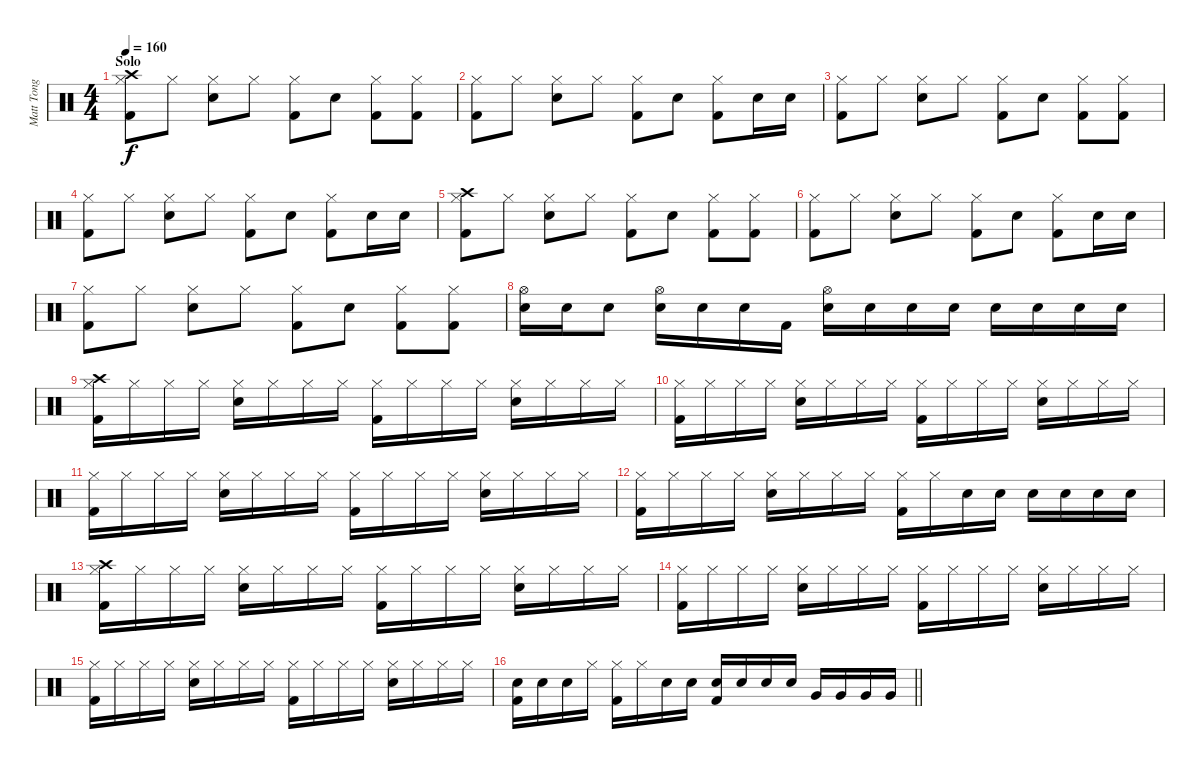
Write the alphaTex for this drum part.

\track ("Matt Tong" "Matt Tong") {instrument percussion}
\staff {score}
\articulation defaults
\ts (4 4)
\section ("" "Solo")
\tempo 160
\clef neutral
\ks c
("Crash high (hit)" "Hi-Hat (closed)" "Kick (hit) 2").8{dy f} "Hi-Hat (closed)".8 ("Hi-Hat (closed)" "Electric Snare (hit)").8 "Hi-Hat (closed)".8 ("Hi-Hat (closed)" "Kick (hit) 2").8 "Electric Snare (hit)".8 ("Hi-Hat (closed)" "Kick (hit) 2").8 ("Hi-Hat (closed)" "Kick (hit) 2").8 |
("Hi-Hat (closed)" "Kick (hit) 2").8 "Hi-Hat (closed)".8 ("Hi-Hat (closed)" "Electric Snare (hit)").8 "Hi-Hat (closed)".8 ("Hi-Hat (closed)" "Kick (hit) 2").8 "Electric Snare (hit)".8 ("Hi-Hat (closed)" "Kick (hit) 2").8 "Electric Snare (hit)".16 "Electric Snare (hit)".16 |
("Hi-Hat (closed)" "Kick (hit) 2").8 "Hi-Hat (closed)".8 ("Hi-Hat (closed)" "Electric Snare (hit)").8 "Hi-Hat (closed)".8 ("Hi-Hat (closed)" "Kick (hit) 2").8 "Electric Snare (hit)".8 ("Hi-Hat (closed)" "Kick (hit) 2").8 ("Hi-Hat (closed)" "Kick (hit) 2").8 |
("Hi-Hat (closed)" "Kick (hit) 2").8 "Hi-Hat (closed)".8 ("Hi-Hat (closed)" "Electric Snare (hit)").8 "Hi-Hat (closed)".8 ("Hi-Hat (closed)" "Kick (hit) 2").8 "Electric Snare (hit)".8 ("Hi-Hat (closed)" "Kick (hit) 2").8 "Electric Snare (hit)".16 "Electric Snare (hit)".16 |
("Crash high (hit)" "Hi-Hat (closed)" "Kick (hit) 2").8 "Hi-Hat (closed)".8 ("Hi-Hat (closed)" "Electric Snare (hit)").8 "Hi-Hat (closed)".8 ("Hi-Hat (closed)" "Kick (hit) 2").8 "Electric Snare (hit)".8 ("Hi-Hat (closed)" "Kick (hit) 2").8 ("Hi-Hat (closed)" "Kick (hit) 2").8 |
("Hi-Hat (closed)" "Kick (hit) 2").8 "Hi-Hat (closed)".8 ("Hi-Hat (closed)" "Electric Snare (hit)").8 "Hi-Hat (closed)".8 ("Hi-Hat (closed)" "Kick (hit) 2").8 "Electric Snare (hit)".8 ("Hi-Hat (closed)" "Kick (hit) 2").8 "Electric Snare (hit)".16 "Electric Snare (hit)".16 |
("Hi-Hat (closed)" "Kick (hit) 2").8 "Hi-Hat (closed)".8 ("Hi-Hat (closed)" "Electric Snare (hit)").8 "Hi-Hat (closed)".8 ("Hi-Hat (closed)" "Kick (hit) 2").8 "Electric Snare (hit)".8 ("Hi-Hat (closed)" "Kick (hit) 2").8 ("Hi-Hat (closed)" "Kick (hit) 2").8 |
("Hi-Hat (open)" "Electric Snare (hit)").16 "Electric Snare (hit)".16 "Electric Snare (hit)".8 ("Hi-Hat (open)" "Electric Snare (hit)").16 "Electric Snare (hit)".16 "Electric Snare (hit)".16 "Kick (hit) 2".16 ("Hi-Hat (open)" "Electric Snare (hit)").16 "Electric Snare (hit)".16 "Electric Snare (hit)".16 "Electric Snare (hit)".16 "Electric Snare (hit)".16 "Electric Snare (hit)".16 "Electric Snare (hit)".16 "Electric Snare (hit)".16 |
("Crash high (hit)" "Hi-Hat (closed)" "Kick (hit) 2").16 "Hi-Hat (closed)".16 "Hi-Hat (closed)".16 "Hi-Hat (closed)".16 ("Hi-Hat (closed)" "Electric Snare (hit)").16 "Hi-Hat (closed)".16 "Hi-Hat (closed)".16 "Hi-Hat (closed)".16 ("Hi-Hat (closed)" "Kick (hit) 2").16 "Hi-Hat (closed)".16 "Hi-Hat (closed)".16 "Hi-Hat (closed)".16 ("Hi-Hat (closed)" "Electric Snare (hit)").16 "Hi-Hat (closed)".16 "Hi-Hat (closed)".16 "Hi-Hat (closed)".16 |
("Hi-Hat (closed)" "Kick (hit) 2").16 "Hi-Hat (closed)".16 "Hi-Hat (closed)".16 "Hi-Hat (closed)".16 ("Hi-Hat (closed)" "Electric Snare (hit)").16 "Hi-Hat (closed)".16 "Hi-Hat (closed)".16 "Hi-Hat (closed)".16 ("Hi-Hat (closed)" "Kick (hit) 2").16 "Hi-Hat (closed)".16 "Hi-Hat (closed)".16 "Hi-Hat (closed)".16 ("Hi-Hat (closed)" "Electric Snare (hit)").16 "Hi-Hat (closed)".16 "Hi-Hat (closed)".16 "Hi-Hat (closed)".16 |
("Hi-Hat (closed)" "Kick (hit) 2").16 "Hi-Hat (closed)".16 "Hi-Hat (closed)".16 "Hi-Hat (closed)".16 ("Hi-Hat (closed)" "Electric Snare (hit)").16 "Hi-Hat (closed)".16 "Hi-Hat (closed)".16 "Hi-Hat (closed)".16 ("Hi-Hat (closed)" "Kick (hit) 2").16 "Hi-Hat (closed)".16 "Hi-Hat (closed)".16 "Hi-Hat (closed)".16 ("Hi-Hat (closed)" "Electric Snare (hit)").16 "Hi-Hat (closed)".16 "Hi-Hat (closed)".16 "Hi-Hat (closed)".16 |
("Hi-Hat (closed)" "Kick (hit) 2").16 "Hi-Hat (closed)".16 "Hi-Hat (closed)".16 "Hi-Hat (closed)".16 ("Hi-Hat (closed)" "Electric Snare (hit)").16 "Hi-Hat (closed)".16 "Hi-Hat (closed)".16 "Hi-Hat (closed)".16 ("Hi-Hat (closed)" "Kick (hit) 2").16 "Hi-Hat (closed)".16 "Electric Snare (hit)".16 "Electric Snare (hit)".16 "Electric Snare (hit)".16 "Electric Snare (hit)".16 "Electric Snare (hit)".16 "Electric Snare (hit)".16 |
("Crash high (hit)" "Hi-Hat (closed)" "Kick (hit) 2").16 "Hi-Hat (closed)".16 "Hi-Hat (closed)".16 "Hi-Hat (closed)".16 ("Hi-Hat (closed)" "Electric Snare (hit)").16 "Hi-Hat (closed)".16 "Hi-Hat (closed)".16 "Hi-Hat (closed)".16 ("Hi-Hat (closed)" "Kick (hit) 2").16 "Hi-Hat (closed)".16 "Hi-Hat (closed)".16 "Hi-Hat (closed)".16 ("Hi-Hat (closed)" "Electric Snare (hit)").16 "Hi-Hat (closed)".16 "Hi-Hat (closed)".16 "Hi-Hat (closed)".16 |
("Hi-Hat (closed)" "Kick (hit) 2").16 "Hi-Hat (closed)".16 "Hi-Hat (closed)".16 "Hi-Hat (closed)".16 ("Hi-Hat (closed)" "Electric Snare (hit)").16 "Hi-Hat (closed)".16 "Hi-Hat (closed)".16 "Hi-Hat (closed)".16 ("Hi-Hat (closed)" "Kick (hit) 2").16 "Hi-Hat (closed)".16 "Hi-Hat (closed)".16 "Hi-Hat (closed)".16 ("Hi-Hat (closed)" "Electric Snare (hit)").16 "Hi-Hat (closed)".16 "Hi-Hat (closed)".16 "Hi-Hat (closed)".16 |
("Hi-Hat (closed)" "Kick (hit) 2").16 "Hi-Hat (closed)".16 "Hi-Hat (closed)".16 "Hi-Hat (closed)".16 ("Hi-Hat (closed)" "Electric Snare (hit)").16 "Hi-Hat (closed)".16 "Hi-Hat (closed)".16 "Hi-Hat (closed)".16 ("Hi-Hat (closed)" "Kick (hit) 2").16 "Hi-Hat (closed)".16 "Hi-Hat (closed)".16 "Hi-Hat (closed)".16 ("Hi-Hat (closed)" "Electric Snare (hit)").16 "Hi-Hat (closed)".16 "Hi-Hat (closed)".16 "Hi-Hat (closed)".16 |
\barLineRight lightlight
("Electric Snare (hit)" "Kick (hit) 2").16 "Electric Snare (hit)".16 "Electric Snare (hit)".16 "Hi-Hat (closed)".16 ("Hi-Hat (closed)" "Kick (hit) 2").16 "Hi-Hat (closed)".16 "Electric Snare (hit)".16 "Electric Snare (hit)".16 ("Electric Snare (hit)" "Kick (hit) 2").16 "Electric Snare (hit)".16 "Electric Snare (hit)".16 "Electric Snare (hit)".16 "Very Low Tom (hit)".16 "Very Low Tom (hit)".16 "Very Low Tom (hit)".16 "Very Low Tom (hit)".16
